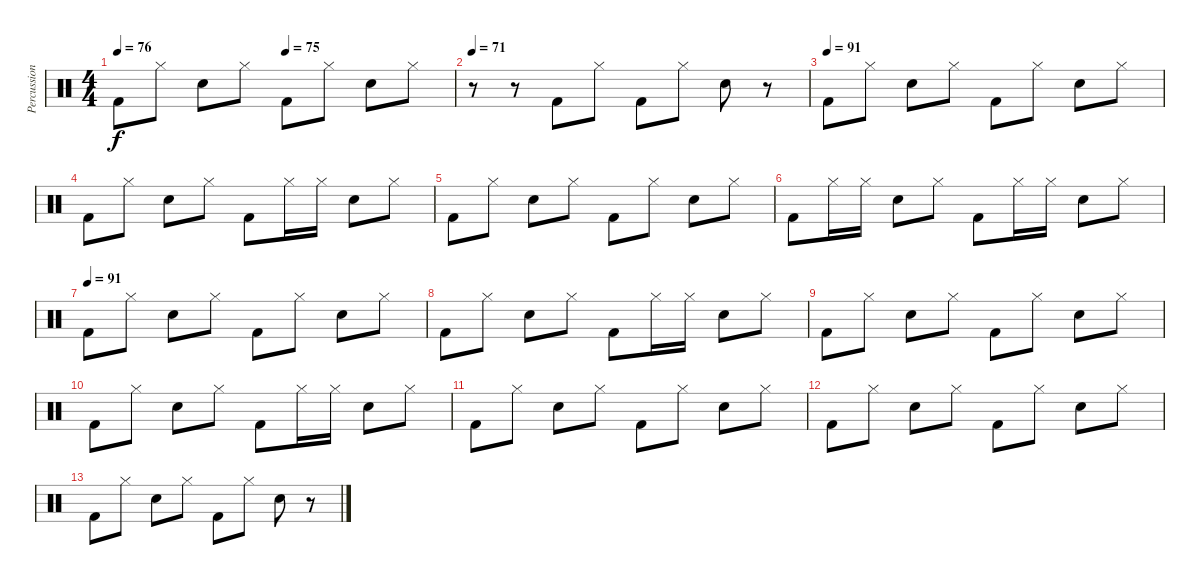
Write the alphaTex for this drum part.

\track ("Percussion" "Percussion") {instrument percussion}
\staff {score}
\articulation defaults
\ts (4 4)
\tempo 76
\tempo (75 0.5)
\clef neutral
\ks c "Kick (hit) 2".8{dy f} "Hi-Hat (closed)".8 "Electric Snare (hit)".8 "Hi-Hat (closed)".8 "Kick (hit) 2".8 "Hi-Hat (closed)".8 "Electric Snare (hit)".8 "Hi-Hat (closed)".8
|
\tempo 71
r.8 r.8 "Kick (hit) 2".8 "Hi-Hat (closed)".8 "Kick (hit) 2".8 "Hi-Hat (closed)".8 "Electric Snare (hit)".8 r.8 |
\tempo (91)
"Kick (hit) 2".8 "Hi-Hat (closed)".8 "Electric Snare (hit)".8 "Hi-Hat (closed)".8 "Kick (hit) 2".8 "Hi-Hat (closed)".8 "Electric Snare (hit)".8 "Hi-Hat (closed)".8 |
"Kick (hit) 2".8 "Hi-Hat (closed)".8 "Electric Snare (hit)".8 "Hi-Hat (closed)".8 "Kick (hit) 2".8 "Hi-Hat (closed)".16 "Hi-Hat (closed)".16 "Electric Snare (hit)".8 "Hi-Hat (closed)".8 |
"Kick (hit) 2".8 "Hi-Hat (closed)".8 "Electric Snare (hit)".8 "Hi-Hat (closed)".8 "Kick (hit) 2".8 "Hi-Hat (closed)".8 "Electric Snare (hit)".8 "Hi-Hat (closed)".8 |
"Kick (hit) 2".8 "Hi-Hat (closed)".16 "Hi-Hat (closed)".16 "Electric Snare (hit)".8 "Hi-Hat (closed)".8 "Kick (hit) 2".8 "Hi-Hat (closed)".16 "Hi-Hat (closed)".16 "Electric Snare (hit)".8 "Hi-Hat (closed)".8 |
\tempo (91)
"Kick (hit) 2".8 "Hi-Hat (closed)".8 "Electric Snare (hit)".8 "Hi-Hat (closed)".8 "Kick (hit) 2".8 "Hi-Hat (closed)".8 "Electric Snare (hit)".8 "Hi-Hat (closed)".8 |
"Kick (hit) 2".8 "Hi-Hat (closed)".8 "Electric Snare (hit)".8 "Hi-Hat (closed)".8 "Kick (hit) 2".8 "Hi-Hat (closed)".16 "Hi-Hat (closed)".16 "Electric Snare (hit)".8 "Hi-Hat (closed)".8 |
"Kick (hit) 2".8 "Hi-Hat (closed)".8 "Electric Snare (hit)".8 "Hi-Hat (closed)".8 "Kick (hit) 2".8 "Hi-Hat (closed)".8 "Electric Snare (hit)".8 "Hi-Hat (closed)".8 |
"Kick (hit) 2".8 "Hi-Hat (closed)".8 "Electric Snare (hit)".8 "Hi-Hat (closed)".8 "Kick (hit) 2".8 "Hi-Hat (closed)".16 "Hi-Hat (closed)".16 "Electric Snare (hit)".8 "Hi-Hat (closed)".8 |
"Kick (hit) 2".8 "Hi-Hat (closed)".8 "Electric Snare (hit)".8 "Hi-Hat (closed)".8 "Kick (hit) 2".8 "Hi-Hat (closed)".8 "Electric Snare (hit)".8 "Hi-Hat (closed)".8 |
"Kick (hit) 2".8 "Hi-Hat (closed)".8 "Electric Snare (hit)".8 "Hi-Hat (closed)".8 "Kick (hit) 2".8 "Hi-Hat (closed)".8 "Electric Snare (hit)".8 "Hi-Hat (closed)".8 |
"Kick (hit) 2".8 "Hi-Hat (closed)".8 "Electric Snare (hit)".8 "Hi-Hat (closed)".8 "Kick (hit) 2".8 "Hi-Hat (closed)".8 "Electric Snare (hit)".8 r.8
